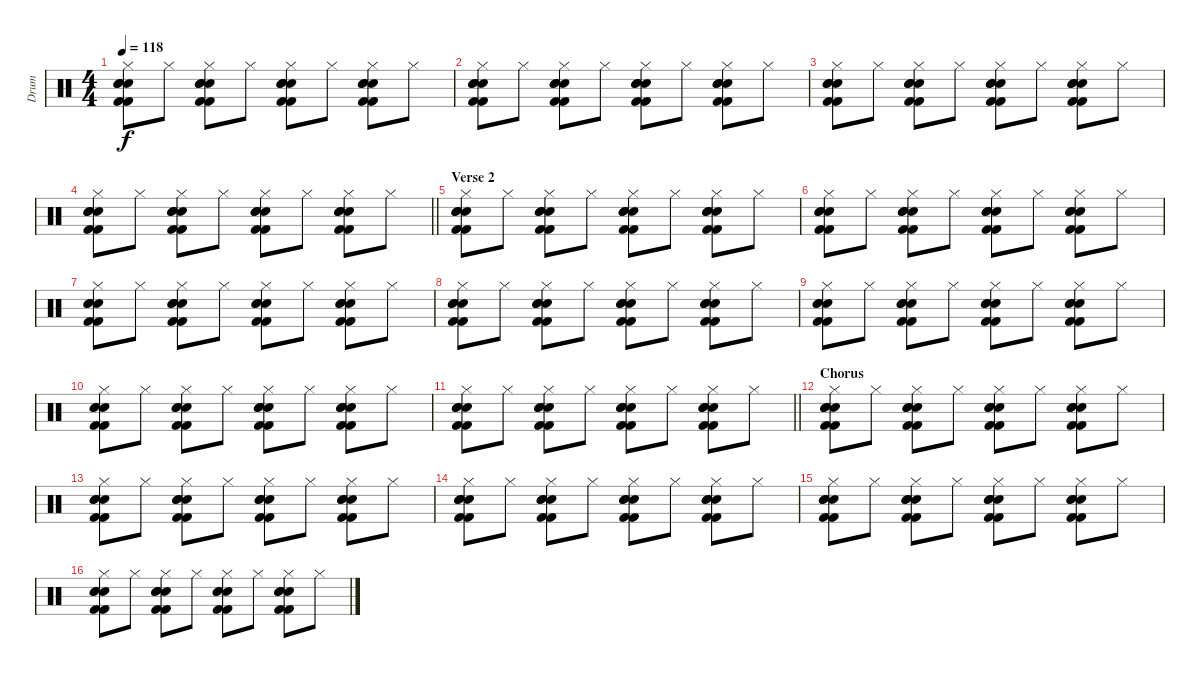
\track ("Drum" "Drum") {instrument percussion}
\staff {score}
\articulation defaults
\ts (4 4)
\tempo 118
\clef neutral
\ks c
("Hi-Hat (closed)" "Kick (hit) 2" "Kick (hit) 2" "Snare (hit) 2" "Snare (hit) 2" "Snare (hit) 2").8{dy f} "Hi-Hat (closed)".8 ("Hi-Hat (closed)" "Kick (hit) 2" "Kick (hit) 2" "Snare (hit) 2" "Snare (hit) 2" "Snare (hit) 2").8 "Hi-Hat (closed)".8 ("Hi-Hat (closed)" "Kick (hit) 2" "Kick (hit) 2" "Snare (hit) 2" "Snare (hit) 2" "Snare (hit) 2").8 "Hi-Hat (closed)".8 ("Hi-Hat (closed)" "Kick (hit) 2" "Kick (hit) 2" "Snare (hit) 2" "Snare (hit) 2" "Snare (hit) 2").8 "Hi-Hat (closed)".8 |
("Hi-Hat (closed)" "Kick (hit) 2" "Kick (hit) 2" "Snare (hit) 2" "Snare (hit) 2" "Snare (hit) 2").8 "Hi-Hat (closed)".8 ("Hi-Hat (closed)" "Kick (hit) 2" "Kick (hit) 2" "Snare (hit) 2" "Snare (hit) 2" "Snare (hit) 2").8 "Hi-Hat (closed)".8 ("Hi-Hat (closed)" "Kick (hit) 2" "Kick (hit) 2" "Snare (hit) 2" "Snare (hit) 2" "Snare (hit) 2").8 "Hi-Hat (closed)".8 ("Hi-Hat (closed)" "Kick (hit) 2" "Kick (hit) 2" "Snare (hit) 2" "Snare (hit) 2" "Snare (hit) 2").8 "Hi-Hat (closed)".8 |
("Hi-Hat (closed)" "Kick (hit) 2" "Kick (hit) 2" "Snare (hit) 2" "Snare (hit) 2" "Snare (hit) 2").8 "Hi-Hat (closed)".8 ("Hi-Hat (closed)" "Kick (hit) 2" "Kick (hit) 2" "Snare (hit) 2" "Snare (hit) 2" "Snare (hit) 2").8 "Hi-Hat (closed)".8 ("Hi-Hat (closed)" "Kick (hit) 2" "Kick (hit) 2" "Snare (hit) 2" "Snare (hit) 2" "Snare (hit) 2").8 "Hi-Hat (closed)".8 ("Hi-Hat (closed)" "Kick (hit) 2" "Kick (hit) 2" "Snare (hit) 2" "Snare (hit) 2" "Snare (hit) 2").8 "Hi-Hat (closed)".8 |
\barLineRight lightlight
("Hi-Hat (closed)" "Kick (hit) 2" "Kick (hit) 2" "Snare (hit) 2" "Snare (hit) 2" "Snare (hit) 2").8 "Hi-Hat (closed)".8 ("Hi-Hat (closed)" "Kick (hit) 2" "Kick (hit) 2" "Snare (hit) 2" "Snare (hit) 2" "Snare (hit) 2").8 "Hi-Hat (closed)".8 ("Hi-Hat (closed)" "Kick (hit) 2" "Kick (hit) 2" "Snare (hit) 2" "Snare (hit) 2" "Snare (hit) 2").8 "Hi-Hat (closed)".8 ("Hi-Hat (closed)" "Kick (hit) 2" "Kick (hit) 2" "Snare (hit) 2" "Snare (hit) 2" "Snare (hit) 2").8 "Hi-Hat (closed)".8 |
\section ("" "Verse 2")
("Hi-Hat (closed)" "Kick (hit) 2" "Kick (hit) 2" "Snare (hit) 2" "Snare (hit) 2" "Snare (hit) 2").8 "Hi-Hat (closed)".8 ("Hi-Hat (closed)" "Kick (hit) 2" "Kick (hit) 2" "Snare (hit) 2" "Snare (hit) 2" "Snare (hit) 2").8 "Hi-Hat (closed)".8 ("Hi-Hat (closed)" "Kick (hit) 2" "Kick (hit) 2" "Snare (hit) 2" "Snare (hit) 2" "Snare (hit) 2").8 "Hi-Hat (closed)".8 ("Hi-Hat (closed)" "Kick (hit) 2" "Kick (hit) 2" "Snare (hit) 2" "Snare (hit) 2" "Snare (hit) 2").8 "Hi-Hat (closed)".8 |
("Hi-Hat (closed)" "Kick (hit) 2" "Kick (hit) 2" "Snare (hit) 2" "Snare (hit) 2" "Snare (hit) 2").8 "Hi-Hat (closed)".8 ("Hi-Hat (closed)" "Kick (hit) 2" "Kick (hit) 2" "Snare (hit) 2" "Snare (hit) 2" "Snare (hit) 2").8 "Hi-Hat (closed)".8 ("Hi-Hat (closed)" "Kick (hit) 2" "Kick (hit) 2" "Snare (hit) 2" "Snare (hit) 2" "Snare (hit) 2").8 "Hi-Hat (closed)".8 ("Hi-Hat (closed)" "Kick (hit) 2" "Kick (hit) 2" "Snare (hit) 2" "Snare (hit) 2" "Snare (hit) 2").8 "Hi-Hat (closed)".8 |
("Hi-Hat (closed)" "Kick (hit) 2" "Kick (hit) 2" "Snare (hit) 2" "Snare (hit) 2" "Snare (hit) 2").8 "Hi-Hat (closed)".8 ("Hi-Hat (closed)" "Kick (hit) 2" "Kick (hit) 2" "Snare (hit) 2" "Snare (hit) 2" "Snare (hit) 2").8 "Hi-Hat (closed)".8 ("Hi-Hat (closed)" "Kick (hit) 2" "Kick (hit) 2" "Snare (hit) 2" "Snare (hit) 2" "Snare (hit) 2").8 "Hi-Hat (closed)".8 ("Hi-Hat (closed)" "Kick (hit) 2" "Kick (hit) 2" "Snare (hit) 2" "Snare (hit) 2" "Snare (hit) 2").8 "Hi-Hat (closed)".8 |
("Hi-Hat (closed)" "Kick (hit) 2" "Kick (hit) 2" "Snare (hit) 2" "Snare (hit) 2" "Snare (hit) 2").8 "Hi-Hat (closed)".8 ("Hi-Hat (closed)" "Kick (hit) 2" "Kick (hit) 2" "Snare (hit) 2" "Snare (hit) 2" "Snare (hit) 2").8 "Hi-Hat (closed)".8 ("Hi-Hat (closed)" "Kick (hit) 2" "Kick (hit) 2" "Snare (hit) 2" "Snare (hit) 2" "Snare (hit) 2").8 "Hi-Hat (closed)".8 ("Hi-Hat (closed)" "Kick (hit) 2" "Kick (hit) 2" "Snare (hit) 2" "Snare (hit) 2" "Snare (hit) 2").8 "Hi-Hat (closed)".8 |
("Hi-Hat (closed)" "Kick (hit) 2" "Kick (hit) 2" "Snare (hit) 2" "Snare (hit) 2" "Snare (hit) 2").8 "Hi-Hat (closed)".8 ("Hi-Hat (closed)" "Kick (hit) 2" "Kick (hit) 2" "Snare (hit) 2" "Snare (hit) 2" "Snare (hit) 2").8 "Hi-Hat (closed)".8 ("Hi-Hat (closed)" "Kick (hit) 2" "Kick (hit) 2" "Snare (hit) 2" "Snare (hit) 2" "Snare (hit) 2").8 "Hi-Hat (closed)".8 ("Hi-Hat (closed)" "Kick (hit) 2" "Kick (hit) 2" "Snare (hit) 2" "Snare (hit) 2" "Snare (hit) 2").8 "Hi-Hat (closed)".8 |
("Hi-Hat (closed)" "Kick (hit) 2" "Kick (hit) 2" "Snare (hit) 2" "Snare (hit) 2" "Snare (hit) 2").8 "Hi-Hat (closed)".8 ("Hi-Hat (closed)" "Kick (hit) 2" "Kick (hit) 2" "Snare (hit) 2" "Snare (hit) 2" "Snare (hit) 2").8 "Hi-Hat (closed)".8 ("Hi-Hat (closed)" "Kick (hit) 2" "Kick (hit) 2" "Snare (hit) 2" "Snare (hit) 2" "Snare (hit) 2").8 "Hi-Hat (closed)".8 ("Hi-Hat (closed)" "Kick (hit) 2" "Kick (hit) 2" "Snare (hit) 2" "Snare (hit) 2" "Snare (hit) 2").8 "Hi-Hat (closed)".8 |
\barLineRight lightlight
("Hi-Hat (closed)" "Kick (hit) 2" "Kick (hit) 2" "Snare (hit) 2" "Snare (hit) 2" "Snare (hit) 2").8 "Hi-Hat (closed)".8 ("Hi-Hat (closed)" "Kick (hit) 2" "Kick (hit) 2" "Snare (hit) 2" "Snare (hit) 2" "Snare (hit) 2").8 "Hi-Hat (closed)".8 ("Hi-Hat (closed)" "Kick (hit) 2" "Kick (hit) 2" "Snare (hit) 2" "Snare (hit) 2" "Snare (hit) 2").8 "Hi-Hat (closed)".8 ("Hi-Hat (closed)" "Kick (hit) 2" "Kick (hit) 2" "Snare (hit) 2" "Snare (hit) 2" "Snare (hit) 2").8 "Hi-Hat (closed)".8 |
\section ("" "Chorus")
("Hi-Hat (closed)" "Kick (hit) 2" "Kick (hit) 2" "Snare (hit) 2" "Snare (hit) 2" "Snare (hit) 2").8 "Hi-Hat (closed)".8 ("Hi-Hat (closed)" "Kick (hit) 2" "Kick (hit) 2" "Snare (hit) 2" "Snare (hit) 2" "Snare (hit) 2").8 "Hi-Hat (closed)".8 ("Hi-Hat (closed)" "Kick (hit) 2" "Kick (hit) 2" "Snare (hit) 2" "Snare (hit) 2" "Snare (hit) 2").8 "Hi-Hat (closed)".8 ("Hi-Hat (closed)" "Kick (hit) 2" "Kick (hit) 2" "Snare (hit) 2" "Snare (hit) 2" "Snare (hit) 2").8 "Hi-Hat (closed)".8 |
("Hi-Hat (closed)" "Kick (hit) 2" "Kick (hit) 2" "Snare (hit) 2" "Snare (hit) 2" "Snare (hit) 2").8 "Hi-Hat (closed)".8 ("Hi-Hat (closed)" "Kick (hit) 2" "Kick (hit) 2" "Snare (hit) 2" "Snare (hit) 2" "Snare (hit) 2").8 "Hi-Hat (closed)".8 ("Hi-Hat (closed)" "Kick (hit) 2" "Kick (hit) 2" "Snare (hit) 2" "Snare (hit) 2" "Snare (hit) 2").8 "Hi-Hat (closed)".8 ("Hi-Hat (closed)" "Kick (hit) 2" "Kick (hit) 2" "Snare (hit) 2" "Snare (hit) 2" "Snare (hit) 2").8 "Hi-Hat (closed)".8 |
("Hi-Hat (closed)" "Kick (hit) 2" "Kick (hit) 2" "Snare (hit) 2" "Snare (hit) 2" "Snare (hit) 2").8 "Hi-Hat (closed)".8 ("Hi-Hat (closed)" "Kick (hit) 2" "Kick (hit) 2" "Snare (hit) 2" "Snare (hit) 2" "Snare (hit) 2").8 "Hi-Hat (closed)".8 ("Hi-Hat (closed)" "Kick (hit) 2" "Kick (hit) 2" "Snare (hit) 2" "Snare (hit) 2" "Snare (hit) 2").8 "Hi-Hat (closed)".8 ("Hi-Hat (closed)" "Kick (hit) 2" "Kick (hit) 2" "Snare (hit) 2" "Snare (hit) 2" "Snare (hit) 2").8 "Hi-Hat (closed)".8 |
("Hi-Hat (closed)" "Kick (hit) 2" "Kick (hit) 2" "Snare (hit) 2" "Snare (hit) 2" "Snare (hit) 2").8 "Hi-Hat (closed)".8 ("Hi-Hat (closed)" "Kick (hit) 2" "Kick (hit) 2" "Snare (hit) 2" "Snare (hit) 2" "Snare (hit) 2").8 "Hi-Hat (closed)".8 ("Hi-Hat (closed)" "Kick (hit) 2" "Kick (hit) 2" "Snare (hit) 2" "Snare (hit) 2" "Snare (hit) 2").8 "Hi-Hat (closed)".8 ("Hi-Hat (closed)" "Kick (hit) 2" "Kick (hit) 2" "Snare (hit) 2" "Snare (hit) 2" "Snare (hit) 2").8 "Hi-Hat (closed)".8 |
("Hi-Hat (closed)" "Kick (hit) 2" "Kick (hit) 2" "Snare (hit) 2" "Snare (hit) 2" "Snare (hit) 2").8 "Hi-Hat (closed)".8 ("Hi-Hat (closed)" "Kick (hit) 2" "Kick (hit) 2" "Snare (hit) 2" "Snare (hit) 2" "Snare (hit) 2").8 "Hi-Hat (closed)".8 ("Hi-Hat (closed)" "Kick (hit) 2" "Kick (hit) 2" "Snare (hit) 2" "Snare (hit) 2" "Snare (hit) 2").8 "Hi-Hat (closed)".8 ("Hi-Hat (closed)" "Kick (hit) 2" "Kick (hit) 2" "Snare (hit) 2" "Snare (hit) 2" "Snare (hit) 2").8 "Hi-Hat (closed)".8
